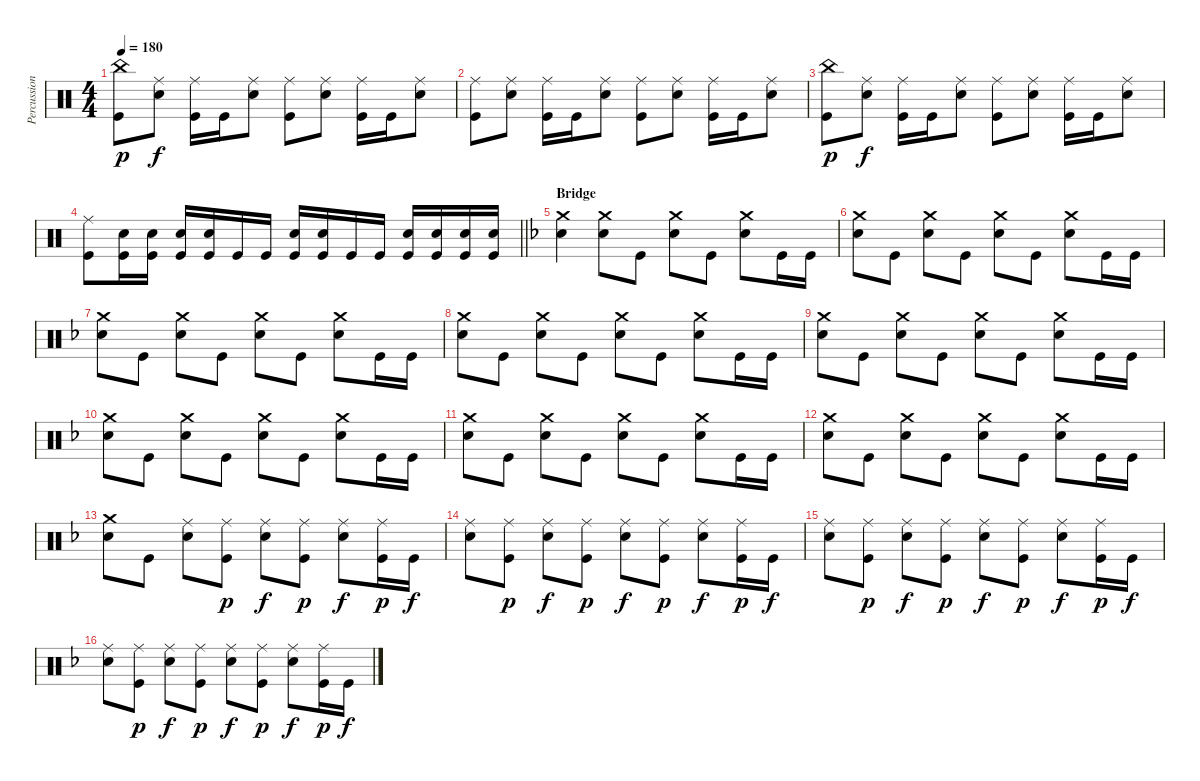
\track ("Percussion" "Percussion") {instrument percussion}
\staff {score}
\articulation defaults
\ts (4 4)
\tempo 180
\clef neutral
\ks c
("China (hit)" "Kick (hit)").8{dy p} ("Ride (middle)" "Snare (hit) 2").8{dy f} ("Ride (middle)" "Kick (hit)").16 "Kick (hit)".16 ("Ride (middle)" "Snare (hit) 2").8 ("Ride (middle)" "Kick (hit)").8 ("Ride (middle)" "Snare (hit) 2").8 ("Ride (middle)" "Kick (hit)").16 "Kick (hit)".16 ("Ride (middle)" "Snare (hit) 2").8 |
("Ride (middle)" "Kick (hit)").8 ("Ride (middle)" "Snare (hit) 2").8 ("Ride (middle)" "Kick (hit)").16 "Kick (hit)".16 ("Ride (middle)" "Snare (hit) 2").8 ("Ride (middle)" "Kick (hit)").8 ("Ride (middle)" "Snare (hit) 2").8 ("Ride (middle)" "Kick (hit)").16 "Kick (hit)".16 ("Ride (middle)" "Snare (hit) 2").8 |
("China (hit)" "Kick (hit)").8{dy p} ("Ride (middle)" "Snare (hit) 2").8{dy f} ("Ride (middle)" "Kick (hit)").16 "Kick (hit)".16 ("Ride (middle)" "Snare (hit) 2").8 ("Ride (middle)" "Kick (hit)").8 ("Ride (middle)" "Snare (hit) 2").8 ("Ride (middle)" "Kick (hit)").16 "Kick (hit)".16 ("Ride (middle)" "Snare (hit) 2").8 |
\barLineRight lightlight
("Ride (middle)" "Kick (hit)").8 ("Snare (hit) 2" "Kick (hit)").16 ("Snare (hit) 2" "Kick (hit)").16 ("Snare (hit) 2" "Kick (hit)").16 ("Snare (hit) 2" "Kick (hit)").16 "Kick (hit)".16 "Kick (hit)".16 ("Snare (hit) 2" "Kick (hit)").16 ("Snare (hit) 2" "Kick (hit)").16 "Kick (hit)".16 "Kick (hit)".16 ("Snare (hit) 2" "Kick (hit)").16 ("Snare (hit) 2" "Kick (hit)").16 ("Snare (hit) 2" "Kick (hit)").16 ("Snare (hit) 2" "Kick (hit)").16 |
\section ("" "Bridge")
\ks f
("Crash medium (hit)" "Snare (hit) 2").4 ("Crash medium (hit)" "Snare (hit) 2").8 "Kick (hit)".8 ("Crash medium (hit)" "Snare (hit) 2").8 "Kick (hit)".8 ("Crash medium (hit)" "Snare (hit) 2").8 "Kick (hit)".16 "Kick (hit)".16 |
("Crash medium (hit)" "Snare (hit) 2").8 "Kick (hit)".8 ("Crash medium (hit)" "Snare (hit) 2").8 "Kick (hit)".8 ("Crash medium (hit)" "Snare (hit) 2").8 "Kick (hit)".8 ("Crash medium (hit)" "Snare (hit) 2").8 "Kick (hit)".16 "Kick (hit)".16 |
("Crash medium (hit)" "Snare (hit) 2").8 "Kick (hit)".8 ("Crash medium (hit)" "Snare (hit) 2").8 "Kick (hit)".8 ("Crash medium (hit)" "Snare (hit) 2").8 "Kick (hit)".8 ("Crash medium (hit)" "Snare (hit) 2").8 "Kick (hit)".16 "Kick (hit)".16 |
("Crash medium (hit)" "Snare (hit) 2").8 "Kick (hit)".8 ("Crash medium (hit)" "Snare (hit) 2").8 "Kick (hit)".8 ("Crash medium (hit)" "Snare (hit) 2").8 "Kick (hit)".8 ("Crash medium (hit)" "Snare (hit) 2").8 "Kick (hit)".16 "Kick (hit)".16 |
("Crash medium (hit)" "Snare (hit) 2").8 "Kick (hit)".8 ("Crash medium (hit)" "Snare (hit) 2").8 "Kick (hit)".8 ("Crash medium (hit)" "Snare (hit) 2").8 "Kick (hit)".8 ("Crash medium (hit)" "Snare (hit) 2").8 "Kick (hit)".16 "Kick (hit)".16 |
("Crash medium (hit)" "Snare (hit) 2").8 "Kick (hit)".8 ("Crash medium (hit)" "Snare (hit) 2").8 "Kick (hit)".8 ("Crash medium (hit)" "Snare (hit) 2").8 "Kick (hit)".8 ("Crash medium (hit)" "Snare (hit) 2").8 "Kick (hit)".16 "Kick (hit)".16 |
("Crash medium (hit)" "Snare (hit) 2").8 "Kick (hit)".8 ("Crash medium (hit)" "Snare (hit) 2").8 "Kick (hit)".8 ("Crash medium (hit)" "Snare (hit) 2").8 "Kick (hit)".8 ("Crash medium (hit)" "Snare (hit) 2").8 "Kick (hit)".16 "Kick (hit)".16 |
("Crash medium (hit)" "Snare (hit) 2").8 "Kick (hit)".8 ("Crash medium (hit)" "Snare (hit) 2").8 "Kick (hit)".8 ("Crash medium (hit)" "Snare (hit) 2").8 "Kick (hit)".8 ("Crash medium (hit)" "Snare (hit) 2").8 "Kick (hit)".16 "Kick (hit)".16 |
("Crash medium (hit)" "Snare (hit) 2").8 "Kick (hit)".8 ("Ride (middle)" "Snare (hit) 2").8 ("Ride (middle)" "Kick (hit)").8{dy p} ("Ride (middle)" "Snare (hit) 2").8{dy f} ("Ride (middle)" "Kick (hit)").8{dy p} ("Ride (middle)" "Snare (hit) 2").8{dy f} ("Ride (middle)" "Kick (hit)").16{dy p} "Kick (hit)".16{dy f} |
("Ride (middle)" "Snare (hit) 2").8 ("Ride (middle)" "Kick (hit)").8{dy p} ("Ride (middle)" "Snare (hit) 2").8{dy f} ("Ride (middle)" "Kick (hit)").8{dy p} ("Ride (middle)" "Snare (hit) 2").8{dy f} ("Ride (middle)" "Kick (hit)").8{dy p} ("Ride (middle)" "Snare (hit) 2").8{dy f} ("Ride (middle)" "Kick (hit)").16{dy p} "Kick (hit)".16{dy f} |
("Ride (middle)" "Snare (hit) 2").8 ("Ride (middle)" "Kick (hit)").8{dy p} ("Ride (middle)" "Snare (hit) 2").8{dy f} ("Ride (middle)" "Kick (hit)").8{dy p} ("Ride (middle)" "Snare (hit) 2").8{dy f} ("Ride (middle)" "Kick (hit)").8{dy p} ("Ride (middle)" "Snare (hit) 2").8{dy f} ("Ride (middle)" "Kick (hit)").16{dy p} "Kick (hit)".16{dy f} |
("Ride (middle)" "Snare (hit) 2").8 ("Ride (middle)" "Kick (hit)").8{dy p} ("Ride (middle)" "Snare (hit) 2").8{dy f} ("Ride (middle)" "Kick (hit)").8{dy p} ("Ride (middle)" "Snare (hit) 2").8{dy f} ("Ride (middle)" "Kick (hit)").8{dy p} ("Ride (middle)" "Snare (hit) 2").8{dy f} ("Ride (middle)" "Kick (hit)").16{dy p} "Kick (hit)".16{dy f}
